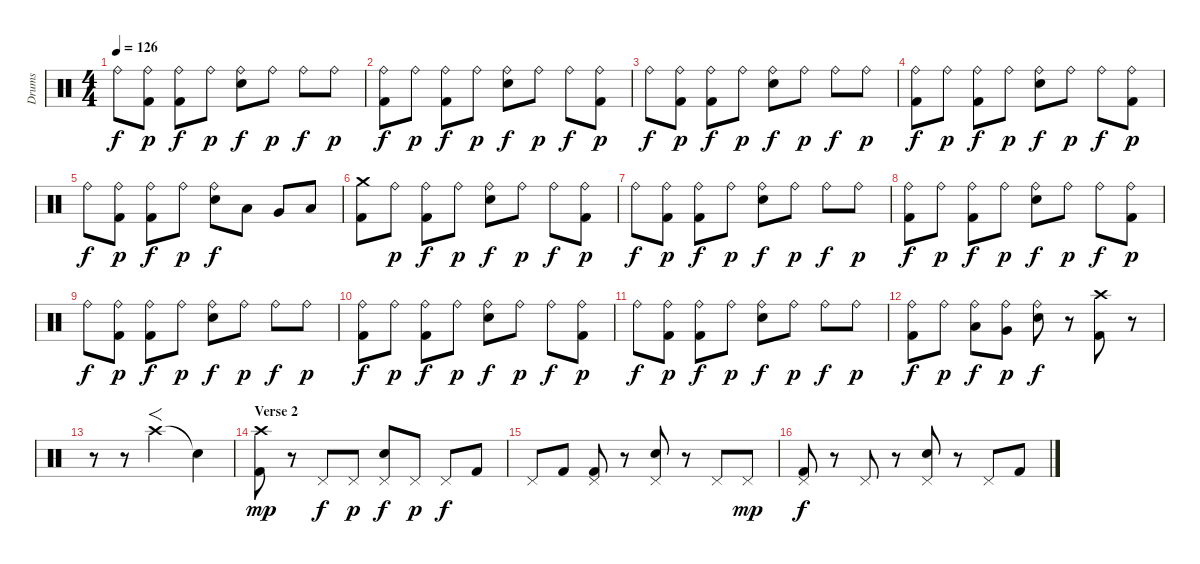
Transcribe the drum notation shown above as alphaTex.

\track ("Drums" "Drums") {instrument percussion}
\staff {score}
\articulation defaults
\ts (4 4)
\tempo 126
\clef neutral
\ks c "Ride (bell)".8{dy f}
("Ride (bell)" "Kick (hit) 2").8{dy p} ("Ride (bell)" "Kick (hit) 2").8{dy f} "Ride (bell)".8{dy p} ("Ride (bell)" "Electric Snare (hit)").8{dy f} "Ride (bell)".8{dy p} "Ride (bell)".8{dy f} "Ride (bell)".8{dy p} |
("Ride (bell)" "Kick (hit) 2").8{dy f} "Ride (bell)".8{dy p} ("Ride (bell)" "Kick (hit) 2").8{dy f} "Ride (bell)".8{dy p} ("Ride (bell)" "Electric Snare (hit)").8{dy f} "Ride (bell)".8{dy p} "Ride (bell)".8{dy f} ("Ride (bell)" "Kick (hit) 2").8{dy p} |
"Ride (bell)".8{dy f} ("Ride (bell)" "Kick (hit) 2").8{dy p} ("Ride (bell)" "Kick (hit) 2").8{dy f} "Ride (bell)".8{dy p} ("Ride (bell)" "Electric Snare (hit)").8{dy f} "Ride (bell)".8{dy p} "Ride (bell)".8{dy f} "Ride (bell)".8{dy p} |
("Ride (bell)" "Kick (hit) 2").8{dy f} "Ride (bell)".8{dy p} ("Ride (bell)" "Kick (hit) 2").8{dy f} "Ride (bell)".8{dy p} ("Ride (bell)" "Electric Snare (hit)").8{dy f} "Ride (bell)".8{dy p} "Ride (bell)".8{dy f} ("Ride (bell)" "Kick (hit) 2").8{dy p} |
"Ride (bell)".8{dy f} ("Ride (bell)" "Kick (hit) 2").8{dy p} ("Ride (bell)" "Kick (hit) 2").8{dy f} "Ride (bell)".8{dy p} ("Ride (bell)" "Electric Snare (hit)").8{dy f} "Low Tom (hit)".8 "Very Low Tom (hit)".8 "Low Floor Tom (hit)".8 |
("Crash medium (hit)" "Kick (hit) 2").8 "Ride (bell)".8{dy p} ("Ride (bell)" "Kick (hit) 2").8{dy f} "Ride (bell)".8{dy p} ("Ride (bell)" "Electric Snare (hit)").8{dy f} "Ride (bell)".8{dy p} "Ride (bell)".8{dy f} ("Ride (bell)" "Kick (hit) 2").8{dy p} |
"Ride (bell)".8{dy f} ("Ride (bell)" "Kick (hit) 2").8{dy p} ("Ride (bell)" "Kick (hit) 2").8{dy f} "Ride (bell)".8{dy p} ("Ride (bell)" "Electric Snare (hit)").8{dy f} "Ride (bell)".8{dy p} "Ride (bell)".8{dy f} "Ride (bell)".8{dy p} |
("Ride (bell)" "Kick (hit) 2").8{dy f} "Ride (bell)".8{dy p} ("Ride (bell)" "Kick (hit) 2").8{dy f} "Ride (bell)".8{dy p} ("Ride (bell)" "Electric Snare (hit)").8{dy f} "Ride (bell)".8{dy p} "Ride (bell)".8{dy f} ("Ride (bell)" "Kick (hit) 2").8{dy p} |
"Ride (bell)".8{dy f} ("Ride (bell)" "Kick (hit) 2").8{dy p} ("Ride (bell)" "Kick (hit) 2").8{dy f} "Ride (bell)".8{dy p} ("Ride (bell)" "Electric Snare (hit)").8{dy f} "Ride (bell)".8{dy p} "Ride (bell)".8{dy f} "Ride (bell)".8{dy p} |
("Ride (bell)" "Kick (hit) 2").8{dy f} "Ride (bell)".8{dy p} ("Ride (bell)" "Kick (hit) 2").8{dy f} "Ride (bell)".8{dy p} ("Ride (bell)" "Electric Snare (hit)").8{dy f} "Ride (bell)".8{dy p} "Ride (bell)".8{dy f} ("Ride (bell)" "Kick (hit) 2").8{dy p} |
"Ride (bell)".8{dy f} ("Ride (bell)" "Kick (hit) 2").8{dy p} ("Ride (bell)" "Kick (hit) 2").8{dy f} "Ride (bell)".8{dy p} ("Ride (bell)" "Electric Snare (hit)").8{dy f} "Ride (bell)".8{dy p} "Ride (bell)".8{dy f} "Ride (bell)".8{dy p} |
("Ride (bell)" "Kick (hit) 2").8{dy f} "Ride (bell)".8{dy p} ("Ride (bell)" "Low Floor Tom (hit)").8{dy f} ("Ride (bell)" "Very Low Tom (hit)").8{dy p} ("Ride (bell)" "Electric Snare (hit)").8{dy f} r.8 ("Crash high (hit)" "Kick (hit) 2").8 r.8 |
r.8 r.8 "Crash high (hit)".2{f} "Snare (hit)"{t}.4 |
\section ("" "Verse 2")
("Crash high (hit)" "Kick (hit) 2").8{dy mp} r.8 "Pedal Hi-Hat (hit)".8{dy f} "Pedal Hi-Hat (hit)".8{dy p} ("Pedal Hi-Hat (hit)" "Electric Snare (hit)").8{dy f} "Pedal Hi-Hat (hit)".8{dy p} "Pedal Hi-Hat (hit)".8{dy f} "Kick (hit) 2".8 |
"Pedal Hi-Hat (hit)".8 "Kick (hit) 2".8 ("Pedal Hi-Hat (hit)" "Kick (hit) 2").8 r.8 ("Pedal Hi-Hat (hit)" "Electric Snare (hit)").8 r.8 "Pedal Hi-Hat (hit)".8 "Pedal Hi-Hat (hit)".8{dy mp} |
("Pedal Hi-Hat (hit)" "Kick (hit) 2").8{dy f} r.8 "Pedal Hi-Hat (hit)".8 r.8 ("Pedal Hi-Hat (hit)" "Electric Snare (hit)").8 r.8 "Pedal Hi-Hat (hit)".8 "Kick (hit) 2".8
